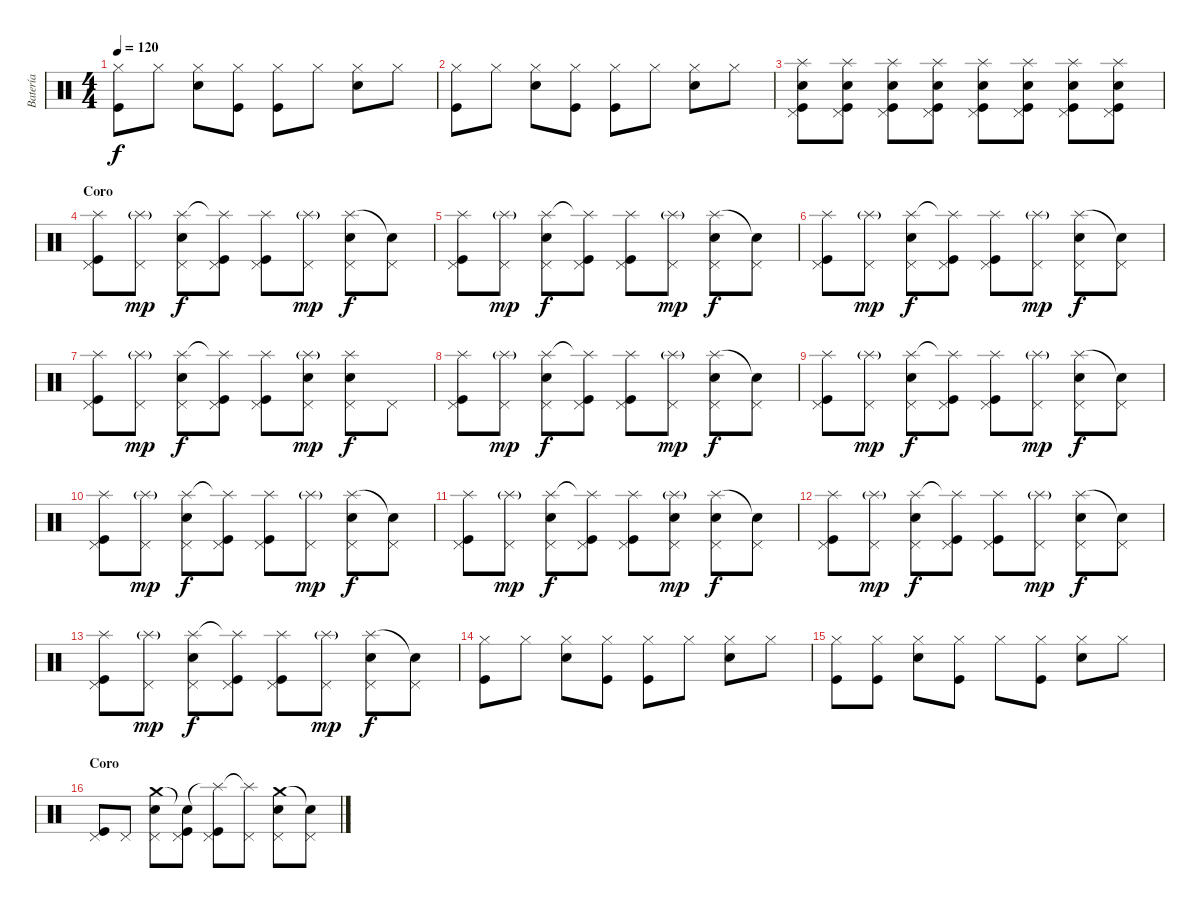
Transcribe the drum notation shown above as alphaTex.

\track ("Batería" "Batería") {instrument percussion}
\staff {score}
\articulation defaults
\ts (4 4)
\tempo 120
\clef neutral
\ks c
("Hi-Hat (closed)" "Kick (hit)").8{dy f} "Hi-Hat (closed)".8 ("Hi-Hat (closed)" "Electric Snare (hit)").8 ("Hi-Hat (closed)" "Kick (hit)").8 ("Hi-Hat (closed)" "Kick (hit)").8 "Hi-Hat (closed)".8 ("Hi-Hat (closed)" "Electric Snare (hit)").8 "Hi-Hat (closed)".8 |
("Hi-Hat (closed)" "Kick (hit)").8 "Hi-Hat (closed)".8 ("Hi-Hat (closed)" "Electric Snare (hit)").8 ("Hi-Hat (closed)" "Kick (hit)").8 ("Hi-Hat (closed)" "Kick (hit)").8 "Hi-Hat (closed)".8 ("Hi-Hat (closed)" "Electric Snare (hit)").8 "Hi-Hat (closed)".8{volume 7} |
("Pedal Hi-Hat (hit)" "Splash (hit)" "Electric Snare (hit)" "Kick (hit)").8{volume 13} ("Pedal Hi-Hat (hit)" "Splash (hit)" "Electric Snare (hit)" "Kick (hit)").8 ("Pedal Hi-Hat (hit)" "Splash (hit)" "Electric Snare (hit)" "Kick (hit)").8 ("Pedal Hi-Hat (hit)" "Splash (hit)" "Electric Snare (hit)" "Kick (hit)").8 ("Pedal Hi-Hat (hit)" "Splash (hit)" "Electric Snare (hit)" "Kick (hit)").8 ("Pedal Hi-Hat (hit)" "Splash (hit)" "Electric Snare (hit)" "Kick (hit)").8 ("Pedal Hi-Hat (hit)" "Splash (hit)" "Electric Snare (hit)" "Kick (hit)").8 ("Pedal Hi-Hat (hit)" "Splash (hit)" "Electric Snare (hit)" "Kick (hit)").8 |
\section ("" "Coro")
("Pedal Hi-Hat (hit)" "Splash (hit)" "Kick (hit)").8 ("Pedal Hi-Hat (hit)" "Splash (hit)"{g}).8{dy mp} ("Pedal Hi-Hat (hit)" "Splash (hit)" "Electric Snare (hit)").8{dy f} ("Pedal Hi-Hat (hit)" "Splash (hit)"{t} "Kick (hit)").8 ("Pedal Hi-Hat (hit)" "Splash (hit)" "Kick (hit)").8 ("Pedal Hi-Hat (hit)" "Splash (hit)"{g}).8{dy mp} ("Pedal Hi-Hat (hit)" "Splash (hit)" "Electric Snare (hit)").8{dy f} ("Pedal Hi-Hat (hit)" "Snare (hit)"{t}).8 |
("Pedal Hi-Hat (hit)" "Splash (hit)" "Kick (hit)").8 ("Pedal Hi-Hat (hit)" "Splash (hit)"{g}).8{dy mp} ("Pedal Hi-Hat (hit)" "Splash (hit)" "Electric Snare (hit)").8{dy f} ("Pedal Hi-Hat (hit)" "Splash (hit)"{t} "Kick (hit)").8 ("Pedal Hi-Hat (hit)" "Splash (hit)" "Kick (hit)").8 ("Pedal Hi-Hat (hit)" "Splash (hit)"{g}).8{dy mp} ("Pedal Hi-Hat (hit)" "Splash (hit)" "Electric Snare (hit)").8{dy f} ("Pedal Hi-Hat (hit)" "Snare (hit)"{t}).8 |
("Pedal Hi-Hat (hit)" "Splash (hit)" "Kick (hit)").8 ("Pedal Hi-Hat (hit)" "Splash (hit)"{g}).8{dy mp} ("Pedal Hi-Hat (hit)" "Splash (hit)" "Electric Snare (hit)").8{dy f} ("Pedal Hi-Hat (hit)" "Splash (hit)"{t} "Kick (hit)").8 ("Pedal Hi-Hat (hit)" "Splash (hit)" "Kick (hit)").8 ("Pedal Hi-Hat (hit)" "Splash (hit)"{g}).8{dy mp} ("Pedal Hi-Hat (hit)" "Splash (hit)" "Electric Snare (hit)").8{dy f} ("Pedal Hi-Hat (hit)" "Snare (hit)"{t}).8 |
("Pedal Hi-Hat (hit)" "Splash (hit)" "Kick (hit)").8 ("Pedal Hi-Hat (hit)" "Splash (hit)"{g}).8{dy mp} ("Pedal Hi-Hat (hit)" "Splash (hit)" "Electric Snare (hit)").8{dy f} ("Pedal Hi-Hat (hit)" "Splash (hit)"{t} "Kick (hit)").8 ("Pedal Hi-Hat (hit)" "Splash (hit)" "Kick (hit)").8 ("Pedal Hi-Hat (hit)" "Splash (hit)"{g} "Electric Snare (hit)").8{dy mp} ("Pedal Hi-Hat (hit)" "Splash (hit)" "Electric Snare (hit)").8{dy f} "Pedal Hi-Hat (hit)".8 |
("Pedal Hi-Hat (hit)" "Splash (hit)" "Kick (hit)").8 ("Pedal Hi-Hat (hit)" "Splash (hit)"{g}).8{dy mp} ("Pedal Hi-Hat (hit)" "Splash (hit)" "Electric Snare (hit)").8{dy f} ("Pedal Hi-Hat (hit)" "Splash (hit)"{t} "Kick (hit)").8 ("Pedal Hi-Hat (hit)" "Splash (hit)" "Kick (hit)").8 ("Pedal Hi-Hat (hit)" "Splash (hit)"{g}).8{dy mp} ("Pedal Hi-Hat (hit)" "Splash (hit)" "Electric Snare (hit)").8{dy f} ("Pedal Hi-Hat (hit)" "Snare (hit)"{t}).8 |
("Pedal Hi-Hat (hit)" "Splash (hit)" "Kick (hit)").8 ("Pedal Hi-Hat (hit)" "Splash (hit)"{g}).8{dy mp} ("Pedal Hi-Hat (hit)" "Splash (hit)" "Electric Snare (hit)").8{dy f} ("Pedal Hi-Hat (hit)" "Splash (hit)"{t} "Kick (hit)").8 ("Pedal Hi-Hat (hit)" "Splash (hit)" "Kick (hit)").8 ("Pedal Hi-Hat (hit)" "Splash (hit)"{g}).8{dy mp} ("Pedal Hi-Hat (hit)" "Splash (hit)" "Electric Snare (hit)").8{dy f} ("Pedal Hi-Hat (hit)" "Snare (hit)"{t}).8 |
("Pedal Hi-Hat (hit)" "Splash (hit)" "Kick (hit)").8 ("Pedal Hi-Hat (hit)" "Splash (hit)"{g}).8{dy mp} ("Pedal Hi-Hat (hit)" "Splash (hit)" "Electric Snare (hit)").8{dy f} ("Pedal Hi-Hat (hit)" "Splash (hit)"{t} "Kick (hit)").8 ("Pedal Hi-Hat (hit)" "Splash (hit)" "Kick (hit)").8 ("Pedal Hi-Hat (hit)" "Splash (hit)"{g}).8{dy mp} ("Pedal Hi-Hat (hit)" "Splash (hit)" "Electric Snare (hit)").8{dy f} ("Pedal Hi-Hat (hit)" "Snare (hit)"{t}).8 |
("Pedal Hi-Hat (hit)" "Splash (hit)" "Kick (hit)").8 ("Pedal Hi-Hat (hit)" "Splash (hit)"{g}).8{dy mp} ("Pedal Hi-Hat (hit)" "Splash (hit)" "Electric Snare (hit)").8{dy f} ("Pedal Hi-Hat (hit)" "Splash (hit)"{t} "Kick (hit)").8 ("Pedal Hi-Hat (hit)" "Splash (hit)" "Kick (hit)").8 ("Pedal Hi-Hat (hit)" "Splash (hit)"{g} "Electric Snare (hit)").8{dy mp} ("Pedal Hi-Hat (hit)" "Splash (hit)" "Electric Snare (hit)").8{dy f} ("Pedal Hi-Hat (hit)" "Snare (hit)"{t}).8 |
("Pedal Hi-Hat (hit)" "Splash (hit)" "Kick (hit)").8 ("Pedal Hi-Hat (hit)" "Splash (hit)"{g}).8{dy mp} ("Pedal Hi-Hat (hit)" "Splash (hit)" "Electric Snare (hit)").8{dy f} ("Pedal Hi-Hat (hit)" "Splash (hit)"{t} "Kick (hit)").8 ("Pedal Hi-Hat (hit)" "Splash (hit)" "Kick (hit)").8 ("Pedal Hi-Hat (hit)" "Splash (hit)"{g}).8{dy mp} ("Pedal Hi-Hat (hit)" "Splash (hit)" "Electric Snare (hit)").8{dy f} ("Pedal Hi-Hat (hit)" "Snare (hit)"{t}).8 |
("Pedal Hi-Hat (hit)" "Splash (hit)" "Kick (hit)").8 ("Pedal Hi-Hat (hit)" "Splash (hit)"{g}).8{dy mp} ("Pedal Hi-Hat (hit)" "Splash (hit)" "Electric Snare (hit)").8{dy f} ("Pedal Hi-Hat (hit)" "Splash (hit)"{t} "Kick (hit)").8 ("Pedal Hi-Hat (hit)" "Splash (hit)" "Kick (hit)").8 ("Pedal Hi-Hat (hit)" "Splash (hit)"{g}).8{dy mp} ("Pedal Hi-Hat (hit)" "Splash (hit)" "Electric Snare (hit)").8{dy f} ("Pedal Hi-Hat (hit)" "Snare (hit)"{t}).8 |
("Hi-Hat (closed)" "Kick (hit)").8 "Hi-Hat (closed)".8 ("Hi-Hat (closed)" "Electric Snare (hit)").8 ("Hi-Hat (closed)" "Kick (hit)").8 ("Hi-Hat (closed)" "Kick (hit)").8 "Hi-Hat (closed)".8 ("Hi-Hat (closed)" "Electric Snare (hit)").8 "Hi-Hat (closed)".8 |
("Hi-Hat (closed)" "Kick (hit)").8 ("Hi-Hat (closed)" "Kick (hit)").8 ("Hi-Hat (closed)" "Electric Snare (hit)").8 ("Hi-Hat (closed)" "Kick (hit)").8 "Hi-Hat (closed)".8 ("Hi-Hat (closed)" "Kick (hit)").8 ("Hi-Hat (closed)" "Electric Snare (hit)").8 "Hi-Hat (closed)".8 |
\section ("" "Coro")
("Pedal Hi-Hat (hit)" "Kick (hit)").8 "Pedal Hi-Hat (hit)".8 ("Pedal Hi-Hat (hit)" "Crash medium (hit)" "Electric Snare (hit)").8 ("Pedal Hi-Hat (hit)" "Snare (hit)"{t} "Kick (hit)").8 ("Pedal Hi-Hat (hit)" "Splash (hit)"{t} "Kick (hit)").8 ("Pedal Hi-Hat (hit)" "Splash (hit)"{t}).8 ("Pedal Hi-Hat (hit)" "Crash medium (hit)" "Electric Snare (hit)").8 ("Pedal Hi-Hat (hit)" "Snare (hit)"{t}).8
